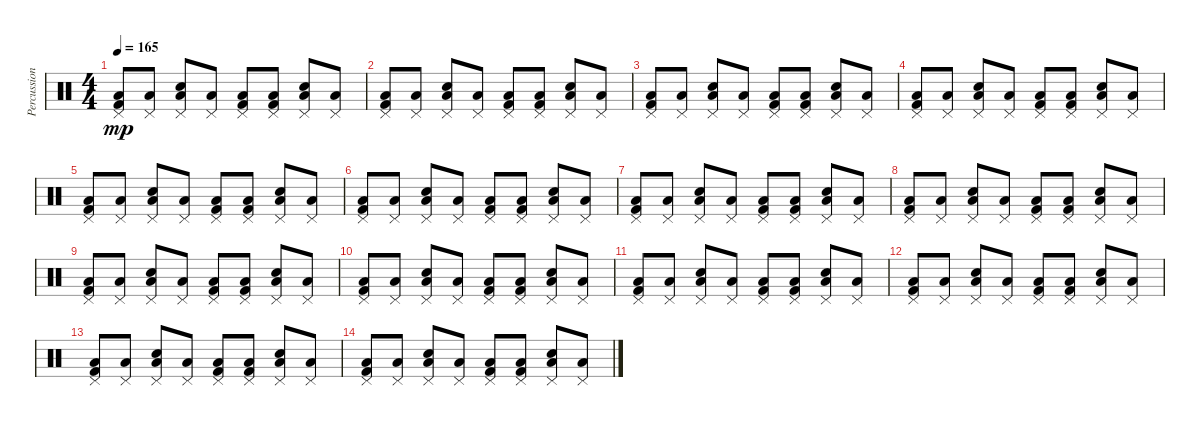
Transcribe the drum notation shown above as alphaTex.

\track ("Percussion" "Percussion") {instrument percussion}
\staff {score}
\articulation defaults
\ts (4 4)
\tempo 165
\clef neutral
\ks c
("Low Floor Tom (hit)" "Kick (hit) 2" "Pedal Hi-Hat (hit)").8{dy mp} ("Low Floor Tom (hit)" "Pedal Hi-Hat (hit)").8 ("Low Floor Tom (hit)" "Electric Snare (hit)" "Pedal Hi-Hat (hit)").8 ("Low Floor Tom (hit)" "Pedal Hi-Hat (hit)").8 ("Low Floor Tom (hit)" "Kick (hit) 2" "Pedal Hi-Hat (hit)").8 ("Low Floor Tom (hit)" "Kick (hit) 2" "Pedal Hi-Hat (hit)").8 ("Low Floor Tom (hit)" "Electric Snare (hit)" "Pedal Hi-Hat (hit)").8 ("Low Floor Tom (hit)" "Pedal Hi-Hat (hit)").8 |
("Low Floor Tom (hit)" "Kick (hit) 2" "Pedal Hi-Hat (hit)").8 ("Low Floor Tom (hit)" "Pedal Hi-Hat (hit)").8 ("Low Floor Tom (hit)" "Electric Snare (hit)" "Pedal Hi-Hat (hit)").8 ("Low Floor Tom (hit)" "Pedal Hi-Hat (hit)").8 ("Low Floor Tom (hit)" "Kick (hit) 2" "Pedal Hi-Hat (hit)").8 ("Low Floor Tom (hit)" "Kick (hit) 2" "Pedal Hi-Hat (hit)").8 ("Low Floor Tom (hit)" "Electric Snare (hit)" "Pedal Hi-Hat (hit)").8 ("Low Floor Tom (hit)" "Pedal Hi-Hat (hit)").8 |
("Low Floor Tom (hit)" "Kick (hit) 2" "Pedal Hi-Hat (hit)").8 ("Low Floor Tom (hit)" "Pedal Hi-Hat (hit)").8 ("Low Floor Tom (hit)" "Electric Snare (hit)" "Pedal Hi-Hat (hit)").8 ("Low Floor Tom (hit)" "Pedal Hi-Hat (hit)").8 ("Low Floor Tom (hit)" "Kick (hit) 2" "Pedal Hi-Hat (hit)").8 ("Low Floor Tom (hit)" "Kick (hit) 2" "Pedal Hi-Hat (hit)").8 ("Low Floor Tom (hit)" "Electric Snare (hit)" "Pedal Hi-Hat (hit)").8 ("Low Floor Tom (hit)" "Pedal Hi-Hat (hit)").8 |
("Low Floor Tom (hit)" "Kick (hit) 2" "Pedal Hi-Hat (hit)").8 ("Low Floor Tom (hit)" "Pedal Hi-Hat (hit)").8 ("Low Floor Tom (hit)" "Electric Snare (hit)" "Pedal Hi-Hat (hit)").8 ("Low Floor Tom (hit)" "Pedal Hi-Hat (hit)").8 ("Low Floor Tom (hit)" "Kick (hit) 2" "Pedal Hi-Hat (hit)").8 ("Low Floor Tom (hit)" "Kick (hit) 2" "Pedal Hi-Hat (hit)").8 ("Low Floor Tom (hit)" "Electric Snare (hit)" "Pedal Hi-Hat (hit)").8 ("Low Floor Tom (hit)" "Pedal Hi-Hat (hit)").8 |
("Low Floor Tom (hit)" "Kick (hit) 2" "Pedal Hi-Hat (hit)").8 ("Low Floor Tom (hit)" "Pedal Hi-Hat (hit)").8 ("Low Floor Tom (hit)" "Electric Snare (hit)" "Pedal Hi-Hat (hit)").8 ("Low Floor Tom (hit)" "Pedal Hi-Hat (hit)").8 ("Low Floor Tom (hit)" "Kick (hit) 2" "Pedal Hi-Hat (hit)").8 ("Low Floor Tom (hit)" "Kick (hit) 2" "Pedal Hi-Hat (hit)").8 ("Low Floor Tom (hit)" "Electric Snare (hit)" "Pedal Hi-Hat (hit)").8 ("Low Floor Tom (hit)" "Pedal Hi-Hat (hit)").8 |
("Low Floor Tom (hit)" "Kick (hit) 2" "Pedal Hi-Hat (hit)").8 ("Low Floor Tom (hit)" "Pedal Hi-Hat (hit)").8 ("Low Floor Tom (hit)" "Electric Snare (hit)" "Pedal Hi-Hat (hit)").8 ("Low Floor Tom (hit)" "Pedal Hi-Hat (hit)").8 ("Low Floor Tom (hit)" "Kick (hit) 2" "Pedal Hi-Hat (hit)").8 ("Low Floor Tom (hit)" "Kick (hit) 2" "Pedal Hi-Hat (hit)").8 ("Low Floor Tom (hit)" "Electric Snare (hit)" "Pedal Hi-Hat (hit)").8 ("Low Floor Tom (hit)" "Pedal Hi-Hat (hit)").8 |
("Low Floor Tom (hit)" "Kick (hit) 2" "Pedal Hi-Hat (hit)").8 ("Low Floor Tom (hit)" "Pedal Hi-Hat (hit)").8 ("Low Floor Tom (hit)" "Electric Snare (hit)" "Pedal Hi-Hat (hit)").8 ("Low Floor Tom (hit)" "Pedal Hi-Hat (hit)").8 ("Low Floor Tom (hit)" "Kick (hit) 2" "Pedal Hi-Hat (hit)").8 ("Low Floor Tom (hit)" "Kick (hit) 2" "Pedal Hi-Hat (hit)").8 ("Low Floor Tom (hit)" "Electric Snare (hit)" "Pedal Hi-Hat (hit)").8 ("Low Floor Tom (hit)" "Pedal Hi-Hat (hit)").8 |
("Low Floor Tom (hit)" "Kick (hit) 2" "Pedal Hi-Hat (hit)").8 ("Low Floor Tom (hit)" "Pedal Hi-Hat (hit)").8 ("Low Floor Tom (hit)" "Electric Snare (hit)" "Pedal Hi-Hat (hit)").8 ("Low Floor Tom (hit)" "Pedal Hi-Hat (hit)").8 ("Low Floor Tom (hit)" "Kick (hit) 2" "Pedal Hi-Hat (hit)").8 ("Low Floor Tom (hit)" "Kick (hit) 2" "Pedal Hi-Hat (hit)").8 ("Low Floor Tom (hit)" "Electric Snare (hit)" "Pedal Hi-Hat (hit)").8 ("Low Floor Tom (hit)" "Pedal Hi-Hat (hit)").8 |
("Low Floor Tom (hit)" "Kick (hit) 2" "Pedal Hi-Hat (hit)").8 ("Low Floor Tom (hit)" "Pedal Hi-Hat (hit)").8 ("Low Floor Tom (hit)" "Electric Snare (hit)" "Pedal Hi-Hat (hit)").8 ("Low Floor Tom (hit)" "Pedal Hi-Hat (hit)").8 ("Low Floor Tom (hit)" "Kick (hit) 2" "Pedal Hi-Hat (hit)").8 ("Low Floor Tom (hit)" "Kick (hit) 2" "Pedal Hi-Hat (hit)").8 ("Low Floor Tom (hit)" "Electric Snare (hit)" "Pedal Hi-Hat (hit)").8 ("Low Floor Tom (hit)" "Pedal Hi-Hat (hit)").8 |
("Low Floor Tom (hit)" "Kick (hit) 2" "Pedal Hi-Hat (hit)").8 ("Low Floor Tom (hit)" "Pedal Hi-Hat (hit)").8 ("Low Floor Tom (hit)" "Electric Snare (hit)" "Pedal Hi-Hat (hit)").8 ("Low Floor Tom (hit)" "Pedal Hi-Hat (hit)").8 ("Low Floor Tom (hit)" "Kick (hit) 2" "Pedal Hi-Hat (hit)").8 ("Low Floor Tom (hit)" "Kick (hit) 2" "Pedal Hi-Hat (hit)").8 ("Low Floor Tom (hit)" "Electric Snare (hit)" "Pedal Hi-Hat (hit)").8 ("Low Floor Tom (hit)" "Pedal Hi-Hat (hit)").8 |
("Low Floor Tom (hit)" "Kick (hit) 2" "Pedal Hi-Hat (hit)").8 ("Low Floor Tom (hit)" "Pedal Hi-Hat (hit)").8 ("Low Floor Tom (hit)" "Electric Snare (hit)" "Pedal Hi-Hat (hit)").8 ("Low Floor Tom (hit)" "Pedal Hi-Hat (hit)").8 ("Low Floor Tom (hit)" "Kick (hit) 2" "Pedal Hi-Hat (hit)").8 ("Low Floor Tom (hit)" "Kick (hit) 2" "Pedal Hi-Hat (hit)").8 ("Low Floor Tom (hit)" "Electric Snare (hit)" "Pedal Hi-Hat (hit)").8 ("Low Floor Tom (hit)" "Pedal Hi-Hat (hit)").8 |
("Low Floor Tom (hit)" "Kick (hit) 2" "Pedal Hi-Hat (hit)").8 ("Low Floor Tom (hit)" "Pedal Hi-Hat (hit)").8 ("Low Floor Tom (hit)" "Electric Snare (hit)" "Pedal Hi-Hat (hit)").8 ("Low Floor Tom (hit)" "Pedal Hi-Hat (hit)").8 ("Low Floor Tom (hit)" "Kick (hit) 2" "Pedal Hi-Hat (hit)").8 ("Low Floor Tom (hit)" "Kick (hit) 2" "Pedal Hi-Hat (hit)").8 ("Low Floor Tom (hit)" "Electric Snare (hit)" "Pedal Hi-Hat (hit)").8 ("Low Floor Tom (hit)" "Pedal Hi-Hat (hit)").8 |
("Low Floor Tom (hit)" "Kick (hit) 2" "Pedal Hi-Hat (hit)").8 ("Low Floor Tom (hit)" "Pedal Hi-Hat (hit)").8 ("Low Floor Tom (hit)" "Electric Snare (hit)" "Pedal Hi-Hat (hit)").8 ("Low Floor Tom (hit)" "Pedal Hi-Hat (hit)").8 ("Low Floor Tom (hit)" "Kick (hit) 2" "Pedal Hi-Hat (hit)").8 ("Low Floor Tom (hit)" "Kick (hit) 2" "Pedal Hi-Hat (hit)").8 ("Low Floor Tom (hit)" "Electric Snare (hit)" "Pedal Hi-Hat (hit)").8 ("Low Floor Tom (hit)" "Pedal Hi-Hat (hit)").8 |
("Low Floor Tom (hit)" "Kick (hit) 2" "Pedal Hi-Hat (hit)").8 ("Low Floor Tom (hit)" "Pedal Hi-Hat (hit)").8 ("Low Floor Tom (hit)" "Electric Snare (hit)" "Pedal Hi-Hat (hit)").8 ("Low Floor Tom (hit)" "Pedal Hi-Hat (hit)").8 ("Low Floor Tom (hit)" "Kick (hit) 2" "Pedal Hi-Hat (hit)").8 ("Low Floor Tom (hit)" "Kick (hit) 2" "Pedal Hi-Hat (hit)").8 ("Low Floor Tom (hit)" "Electric Snare (hit)" "Pedal Hi-Hat (hit)").8 ("Low Floor Tom (hit)" "Pedal Hi-Hat (hit)").8
